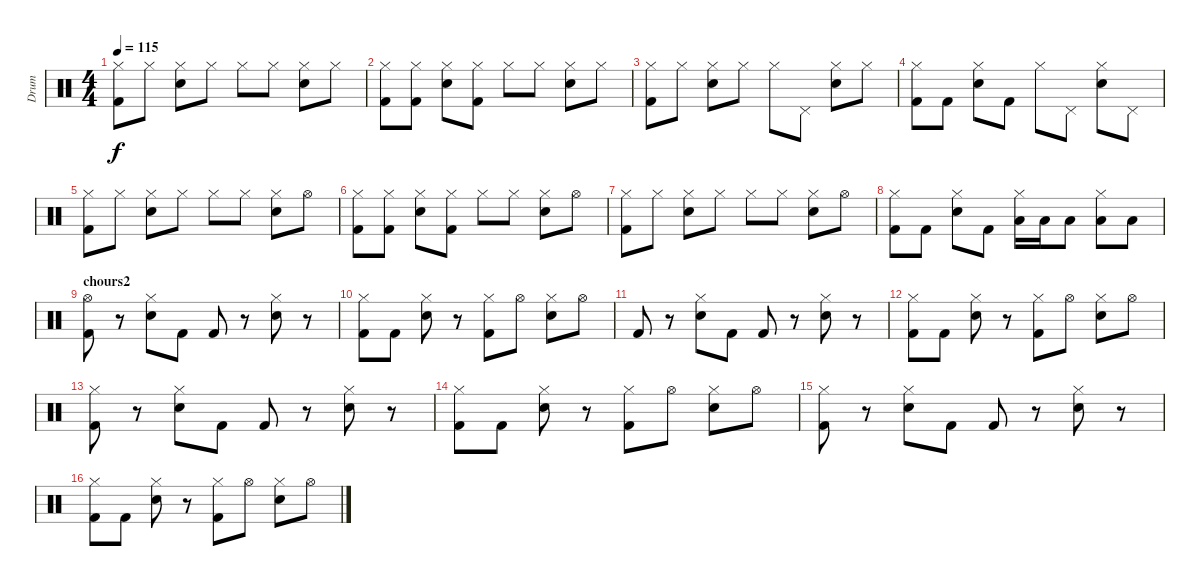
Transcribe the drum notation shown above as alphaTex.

\track ("Drum" "Drum") {instrument percussion}
\staff {score}
\articulation defaults
\ts (4 4)
\tempo 115
\clef neutral
\ks c
("Hi-Hat (closed)" "Kick (hit) 2").8{dy f} "Hi-Hat (closed)".8 ("Hi-Hat (closed)" "Electric Snare (hit)").8 "Hi-Hat (closed)".8 "Hi-Hat (closed)".8 "Hi-Hat (closed)".8 ("Hi-Hat (closed)" "Electric Snare (hit)").8 "Hi-Hat (closed)".8 |
("Hi-Hat (closed)" "Kick (hit) 2").8 ("Hi-Hat (closed)" "Kick (hit) 2").8 ("Hi-Hat (closed)" "Electric Snare (hit)").8 ("Hi-Hat (closed)" "Kick (hit) 2").8 "Hi-Hat (closed)".8 "Hi-Hat (closed)".8 ("Hi-Hat (closed)" "Electric Snare (hit)").8 "Hi-Hat (closed)".8 |
("Hi-Hat (closed)" "Kick (hit) 2").8 "Hi-Hat (closed)".8 ("Hi-Hat (closed)" "Electric Snare (hit)").8 "Hi-Hat (closed)".8 "Hi-Hat (closed)".8 "Pedal Hi-Hat (hit)".8 ("Hi-Hat (closed)" "Electric Snare (hit)").8 "Hi-Hat (closed)".8 |
("Hi-Hat (closed)" "Kick (hit) 2").8 "Kick (hit) 2".8 ("Hi-Hat (closed)" "Electric Snare (hit)").8 "Kick (hit) 2".8 "Hi-Hat (closed)".8 "Pedal Hi-Hat (hit)".8 ("Hi-Hat (closed)" "Electric Snare (hit)").8 "Pedal Hi-Hat (hit)".8 |
("Hi-Hat (closed)" "Kick (hit) 2").8 "Hi-Hat (closed)".8 ("Hi-Hat (closed)" "Electric Snare (hit)").8 "Hi-Hat (closed)".8 "Hi-Hat (closed)".8 "Hi-Hat (closed)".8 ("Hi-Hat (closed)" "Electric Snare (hit)").8 "Hi-Hat (open)".8 |
("Hi-Hat (closed)" "Kick (hit) 2").8 ("Hi-Hat (closed)" "Kick (hit) 2").8 ("Hi-Hat (closed)" "Electric Snare (hit)").8 ("Hi-Hat (closed)" "Kick (hit) 2").8 "Hi-Hat (closed)".8 "Hi-Hat (closed)".8 ("Hi-Hat (closed)" "Electric Snare (hit)").8 "Hi-Hat (open)".8 |
("Hi-Hat (closed)" "Kick (hit) 2").8 "Hi-Hat (closed)".8 ("Hi-Hat (closed)" "Electric Snare (hit)").8 "Hi-Hat (closed)".8 "Hi-Hat (closed)".8 "Hi-Hat (closed)".8 ("Hi-Hat (closed)" "Electric Snare (hit)").8 "Hi-Hat (open)".8 |
("Hi-Hat (closed)" "Kick (hit) 2").8 "Kick (hit) 2".8 ("Hi-Hat (closed)" "Electric Snare (hit)").8 "Kick (hit) 2".8 ("Hi-Hat (closed)" "Low Tom (hit)").16 "Low Tom (hit)".16 "Low Tom (hit)".8 ("Hi-Hat (closed)" "Low Tom (hit)").8 "Low Tom (hit)".8 |
\section ("" "chours2")
("Hi-Hat (open)" "Kick (hit) 2").8 r.8 ("Hi-Hat (closed)" "Electric Snare (hit)").8 "Kick (hit) 2".8 "Kick (hit) 2".8 r.8 ("Hi-Hat (closed)" "Electric Snare (hit)").8 r.8 |
("Hi-Hat (closed)" "Kick (hit) 2").8 "Kick (hit) 2".8 ("Hi-Hat (closed)" "Electric Snare (hit)").8 r.8 ("Hi-Hat (closed)" "Kick (hit) 2").8 "Hi-Hat (open)".8 ("Hi-Hat (closed)" "Electric Snare (hit)").8 "Hi-Hat (open)".8 |
"Kick (hit) 2".8 r.8 ("Hi-Hat (closed)" "Electric Snare (hit)").8 "Kick (hit) 2".8 "Kick (hit) 2".8 r.8 ("Hi-Hat (closed)" "Electric Snare (hit)").8 r.8 |
("Hi-Hat (closed)" "Kick (hit) 2").8 "Kick (hit) 2".8 ("Hi-Hat (closed)" "Electric Snare (hit)").8 r.8 ("Hi-Hat (closed)" "Kick (hit) 2").8 "Hi-Hat (open)".8 ("Hi-Hat (closed)" "Electric Snare (hit)").8 "Hi-Hat (open)".8 |
("Hi-Hat (closed)" "Kick (hit) 2").8 r.8 ("Hi-Hat (closed)" "Electric Snare (hit)").8 "Kick (hit) 2".8 "Kick (hit) 2".8 r.8 ("Hi-Hat (closed)" "Electric Snare (hit)").8 r.8 |
("Hi-Hat (closed)" "Kick (hit) 2").8 "Kick (hit) 2".8 ("Hi-Hat (closed)" "Electric Snare (hit)").8 r.8 ("Hi-Hat (closed)" "Kick (hit) 2").8 "Hi-Hat (open)".8 ("Hi-Hat (closed)" "Electric Snare (hit)").8 "Hi-Hat (open)".8 |
("Hi-Hat (closed)" "Kick (hit) 2").8 r.8 ("Hi-Hat (closed)" "Electric Snare (hit)").8 "Kick (hit) 2".8 "Kick (hit) 2".8 r.8 ("Hi-Hat (closed)" "Electric Snare (hit)").8 r.8 |
("Hi-Hat (closed)" "Kick (hit) 2").8 "Kick (hit) 2".8 ("Hi-Hat (closed)" "Electric Snare (hit)").8 r.8 ("Hi-Hat (closed)" "Kick (hit) 2").8 "Hi-Hat (open)".8 ("Hi-Hat (closed)" "Electric Snare (hit)").8 "Hi-Hat (open)".8
